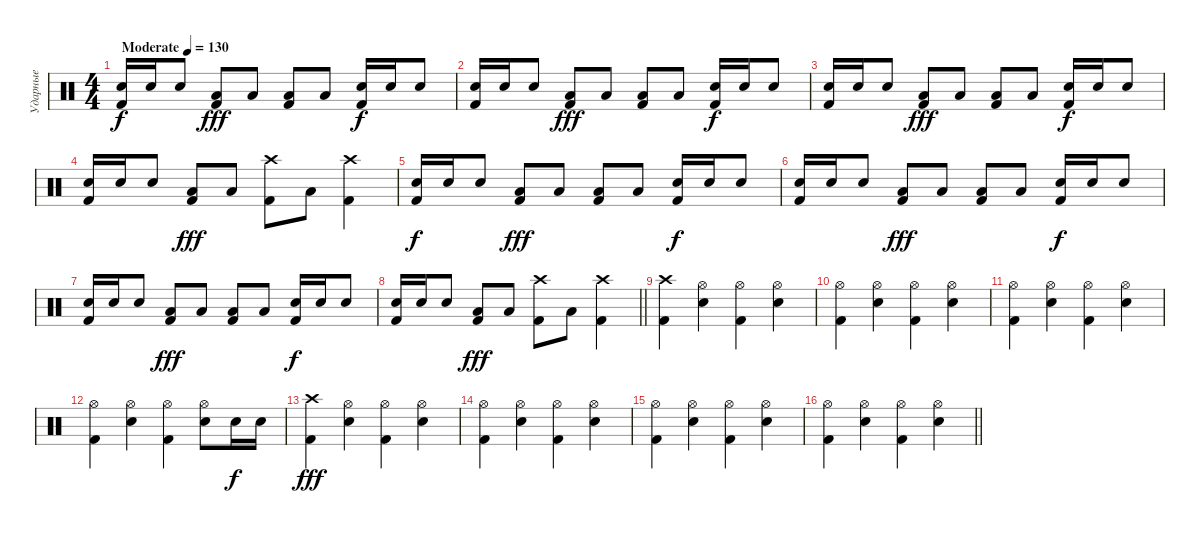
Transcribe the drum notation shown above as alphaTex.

\track ("Ударные" "Ударные") {instrument percussion}
\staff {score}
\articulation defaults
\ts (4 4)
\tempo (130 "Moderate")
\clef neutral
\ks c
("Kick (hit) 2" "Snare (hit) 2").16{dy f} "Snare (hit) 2".16 "Snare (hit) 2".8 ("Kick (hit) 2" "Low Floor Tom (hit)").8{dy fff} "Low Floor Tom (hit)".8 ("Kick (hit) 2" "Low Floor Tom (hit)").8 "Low Floor Tom (hit)".8 ("Kick (hit) 2" "Snare (hit) 2").16{dy f} "Snare (hit) 2".16 "Snare (hit) 2".8 |
("Kick (hit) 2" "Snare (hit) 2").16 "Snare (hit) 2".16 "Snare (hit) 2".8 ("Kick (hit) 2" "Low Floor Tom (hit)").8{dy fff} "Low Floor Tom (hit)".8 ("Kick (hit) 2" "Low Floor Tom (hit)").8 "Low Floor Tom (hit)".8 ("Kick (hit) 2" "Snare (hit) 2").16{dy f} "Snare (hit) 2".16 "Snare (hit) 2".8 |
("Kick (hit) 2" "Snare (hit) 2").16 "Snare (hit) 2".16 "Snare (hit) 2".8 ("Kick (hit) 2" "Low Floor Tom (hit)").8{dy fff} "Low Floor Tom (hit)".8 ("Kick (hit) 2" "Low Floor Tom (hit)").8 "Low Floor Tom (hit)".8 ("Kick (hit) 2" "Snare (hit) 2").16{dy f} "Snare (hit) 2".16 "Snare (hit) 2".8 |
("Kick (hit) 2" "Snare (hit) 2").16 "Snare (hit) 2".16 "Snare (hit) 2".8 ("Kick (hit) 2" "Low Floor Tom (hit)").8{dy fff} "Low Floor Tom (hit)".8 ("Kick (hit) 2" "Crash high (hit)").8 "Low Floor Tom (hit)".8 ("Kick (hit) 2" "Crash high (hit)").4 |
("Kick (hit) 2" "Snare (hit) 2").16{dy f} "Snare (hit) 2".16 "Snare (hit) 2".8 ("Kick (hit) 2" "Low Floor Tom (hit)").8{dy fff} "Low Floor Tom (hit)".8 ("Kick (hit) 2" "Low Floor Tom (hit)").8 "Low Floor Tom (hit)".8 ("Kick (hit) 2" "Snare (hit) 2").16{dy f} "Snare (hit) 2".16 "Snare (hit) 2".8 |
("Kick (hit) 2" "Snare (hit) 2").16 "Snare (hit) 2".16 "Snare (hit) 2".8 ("Kick (hit) 2" "Low Floor Tom (hit)").8{dy fff} "Low Floor Tom (hit)".8 ("Kick (hit) 2" "Low Floor Tom (hit)").8 "Low Floor Tom (hit)".8 ("Kick (hit) 2" "Snare (hit) 2").16{dy f} "Snare (hit) 2".16 "Snare (hit) 2".8 |
("Kick (hit) 2" "Snare (hit) 2").16 "Snare (hit) 2".16 "Snare (hit) 2".8 ("Kick (hit) 2" "Low Floor Tom (hit)").8{dy fff} "Low Floor Tom (hit)".8 ("Kick (hit) 2" "Low Floor Tom (hit)").8 "Low Floor Tom (hit)".8 ("Kick (hit) 2" "Snare (hit) 2").16{dy f} "Snare (hit) 2".16 "Snare (hit) 2".8 |
\barLineRight lightlight
("Kick (hit) 2" "Snare (hit) 2").16 "Snare (hit) 2".16 "Snare (hit) 2".8 ("Kick (hit) 2" "Low Floor Tom (hit)").8{dy fff} "Low Floor Tom (hit)".8 ("Kick (hit) 2" "Crash high (hit)").8 "Low Floor Tom (hit)".8 ("Kick (hit) 2" "Crash high (hit)").4 |
("Kick (hit) 2" "Crash high (hit)").4 ("Snare (hit) 2" "Hi-Hat (open)").4 ("Kick (hit) 2" "Hi-Hat (open)").4 ("Snare (hit) 2" "Hi-Hat (open)").4 |
("Kick (hit) 2" "Hi-Hat (open)").4 ("Snare (hit) 2" "Hi-Hat (open)").4 ("Kick (hit) 2" "Hi-Hat (open)").4 ("Snare (hit) 2" "Hi-Hat (open)").4 |
("Kick (hit) 2" "Hi-Hat (open)").4 ("Snare (hit) 2" "Hi-Hat (open)").4 ("Kick (hit) 2" "Hi-Hat (open)").4 ("Snare (hit) 2" "Hi-Hat (open)").4 |
("Kick (hit) 2" "Hi-Hat (open)").4 ("Snare (hit) 2" "Hi-Hat (open)").4 ("Kick (hit) 2" "Hi-Hat (open)").4 ("Snare (hit) 2" "Hi-Hat (open)").8 "Snare (hit) 2".16{dy f} "Snare (hit) 2".16 |
("Kick (hit) 2" "Crash high (hit)").4{dy fff} ("Snare (hit) 2" "Hi-Hat (open)").4 ("Kick (hit) 2" "Hi-Hat (open)").4 ("Snare (hit) 2" "Hi-Hat (open)").4 |
("Kick (hit) 2" "Hi-Hat (open)").4 ("Snare (hit) 2" "Hi-Hat (open)").4 ("Kick (hit) 2" "Hi-Hat (open)").4 ("Snare (hit) 2" "Hi-Hat (open)").4 |
("Kick (hit) 2" "Hi-Hat (open)").4 ("Snare (hit) 2" "Hi-Hat (open)").4 ("Kick (hit) 2" "Hi-Hat (open)").4 ("Snare (hit) 2" "Hi-Hat (open)").4 |
\barLineRight lightlight
("Kick (hit) 2" "Hi-Hat (open)").4 ("Snare (hit) 2" "Hi-Hat (open)").4 ("Kick (hit) 2" "Hi-Hat (open)").4 ("Snare (hit) 2" "Hi-Hat (open)").4
